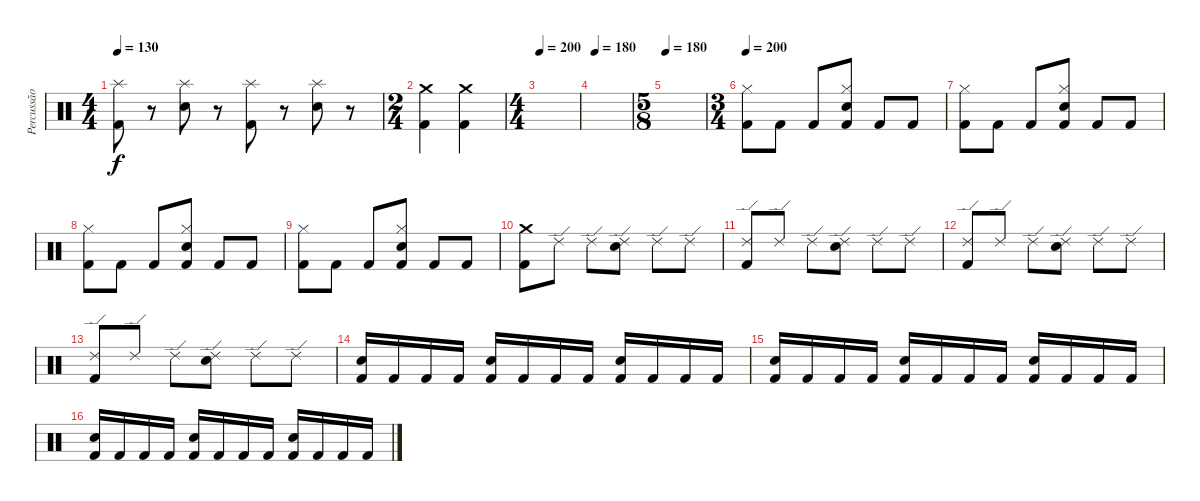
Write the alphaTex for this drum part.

\track ("Percussão" "Percussão") {instrument percussion}
\staff {score}
\articulation defaults
\ts (4 4)
\tempo 130
\clef neutral
\ks c
("Splash (hit)" "Kick (hit) 2").8{dy f} r.8 ("Splash (hit)" "Snare (hit) 2").8 r.8 ("Splash (hit)" "Kick (hit) 2").8 r.8 ("Splash (hit)" "Snare (hit) 2").8 r.8 |
\ts (2 4)
("Crash medium (hit)" "Kick (hit) 2").4 ("Crash medium (hit)" "Kick (hit) 2").4 |
\ts (4 4)
\tempo 180
\tempo 200
|
\tempo (180 0.0625)
|
\ts (5 8)
\tempo 180
|
\ts (3 4)
\tempo 200
("Hi-Hat (closed)" "Kick (hit) 2").8 "Kick (hit) 2".8 "Kick (hit) 2".8 ("Hi-Hat (closed)" "Electric Snare (hit)" "Kick (hit) 2").8 "Kick (hit) 2".8 "Kick (hit) 2".8 |
("Hi-Hat (closed)" "Kick (hit) 2").8 "Kick (hit) 2".8 "Kick (hit) 2".8 ("Hi-Hat (closed)" "Electric Snare (hit)" "Kick (hit) 2").8 "Kick (hit) 2".8 "Kick (hit) 2".8 |
("Hi-Hat (closed)" "Kick (hit) 2").8 "Kick (hit) 2".8 "Kick (hit) 2".8 ("Hi-Hat (closed)" "Electric Snare (hit)" "Kick (hit) 2").8 "Kick (hit) 2".8 "Kick (hit) 2".8 |
("Hi-Hat (closed)" "Kick (hit) 2").8 "Kick (hit) 2".8 "Kick (hit) 2".8 ("Hi-Hat (closed)" "Electric Snare (hit)" "Kick (hit) 2").8 "Kick (hit) 2".8 "Kick (hit) 2".8 |
("Crash medium (hit)" "Kick (hit) 2").8 "Ride (edge) 2".8 "Ride (edge) 2".8 ("Ride (edge) 2" "Electric Snare (hit)").8 "Ride (edge) 2".8 "Ride (edge) 2".8 |
("Ride (edge) 2" "Kick (hit) 2").8 "Ride (edge) 2".8 "Ride (edge) 2".8 ("Ride (edge) 2" "Electric Snare (hit)").8 "Ride (edge) 2".8 "Ride (edge) 2".8 |
("Ride (edge) 2" "Kick (hit) 2").8 "Ride (edge) 2".8 "Ride (edge) 2".8 ("Ride (edge) 2" "Electric Snare (hit)").8 "Ride (edge) 2".8 "Ride (edge) 2".8 |
("Ride (edge) 2" "Kick (hit) 2").8 "Ride (edge) 2".8 "Ride (edge) 2".8 ("Ride (edge) 2" "Electric Snare (hit)").8 "Ride (edge) 2".8 "Ride (edge) 2".8 |
("Electric Snare (hit)" "Kick (hit) 2").16 "Kick (hit) 2".16 "Kick (hit) 2".16 "Kick (hit) 2".16 ("Electric Snare (hit)" "Kick (hit) 2").16 "Kick (hit) 2".16 "Kick (hit) 2".16 "Kick (hit) 2".16 ("Electric Snare (hit)" "Kick (hit) 2").16 "Kick (hit) 2".16 "Kick (hit) 2".16 "Kick (hit) 2".16 |
("Electric Snare (hit)" "Kick (hit) 2").16 "Kick (hit) 2".16 "Kick (hit) 2".16 "Kick (hit) 2".16 ("Electric Snare (hit)" "Kick (hit) 2").16 "Kick (hit) 2".16 "Kick (hit) 2".16 "Kick (hit) 2".16 ("Electric Snare (hit)" "Kick (hit) 2").16 "Kick (hit) 2".16 "Kick (hit) 2".16 "Kick (hit) 2".16 |
("Electric Snare (hit)" "Kick (hit) 2").16 "Kick (hit) 2".16 "Kick (hit) 2".16 "Kick (hit) 2".16 ("Electric Snare (hit)" "Kick (hit) 2").16 "Kick (hit) 2".16 "Kick (hit) 2".16 "Kick (hit) 2".16 ("Electric Snare (hit)" "Kick (hit) 2").16 "Kick (hit) 2".16 "Kick (hit) 2".16 "Kick (hit) 2".16
